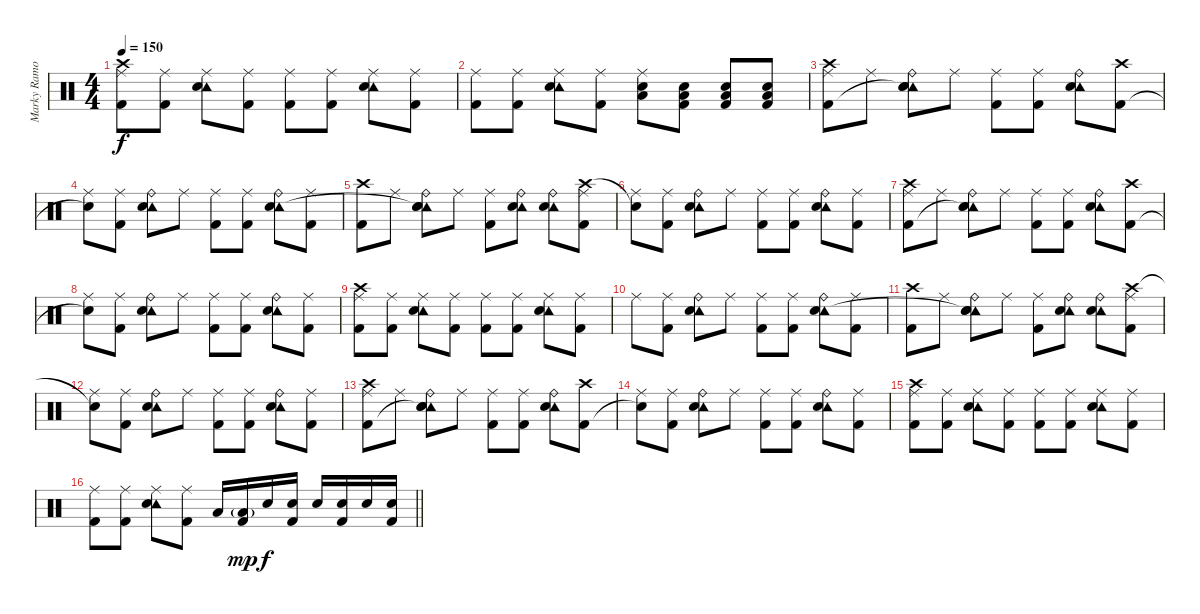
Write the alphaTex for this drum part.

\track ("Marky Ramone - Drum" "Marky Ramo") {instrument percussion}
\staff {score}
\articulation defaults
\ts (4 4)
\tempo 150
\clef neutral
\ks c
("Ride (middle)" "Crash high (hit)" "Kick (hit) 2").8{dy f} ("Ride (middle)" "Kick (hit) 2").8 ("Ride (middle)" "Tambourine (hit)" "Snare (hit) 2").8 ("Ride (middle)" "Kick (hit) 2").8 ("Ride (middle)" "Kick (hit) 2").8 ("Ride (middle)" "Kick (hit) 2").8 ("Ride (middle)" "Tambourine (hit)" "Snare (hit) 2").8 ("Ride (middle)" "Kick (hit) 2").8 |
("Ride (middle)" "Kick (hit) 2").8 ("Ride (middle)" "Kick (hit) 2").8 ("Ride (middle)" "Tambourine (hit)" "Snare (hit) 2").8 ("Ride (middle)" "Kick (hit) 2").8 ("Ride (middle)" "Low Floor Tom (hit)" "Snare (hit) 2").8 ("Low Floor Tom (hit)" "Snare (hit) 2" "Kick (hit) 2").8 ("Low Floor Tom (hit)" "Snare (hit) 2" "Kick (hit) 2").8 ("Low Floor Tom (hit)" "Snare (hit) 2" "Kick (hit) 2").8 |
("Ride (middle)" "Crash high (hit)" "Kick (hit) 2").8 "Ride (middle)".8 ("Ride (bell)" "Tambourine (hit)" "Snare (hit)"{t} "Snare (hit) 2").8 "Ride (middle)".8 ("Ride (middle)" "Kick (hit) 2").8 ("Ride (middle)" "Kick (hit) 2").8 ("Ride (bell)" "Tambourine (hit)" "Snare (hit) 2").8 ("Crash high (hit)" "Kick (hit) 2").8 |
("Ride (middle)" "Snare (hit)"{t}).8 ("Ride (middle)" "Kick (hit) 2").8 ("Ride (bell)" "Tambourine (hit)" "Snare (hit) 2").8 "Ride (middle)".8 ("Ride (middle)" "Kick (hit) 2").8 ("Ride (middle)" "Kick (hit) 2").8 ("Ride (bell)" "Tambourine (hit)" "Snare (hit) 2").8 ("Ride (middle)" "Kick (hit) 2").8 |
("Crash high (hit)" "Kick (hit) 2").8 "Ride (middle)".8 ("Ride (bell)" "Tambourine (hit)" "Snare (hit)"{t} "Snare (hit) 2").8 "Ride (middle)".8 ("Ride (middle)" "Kick (hit) 2").8 ("Ride (bell)" "Tambourine (hit)" "Snare (hit) 2").8 ("Ride (bell)" "Tambourine (hit)" "Snare (hit) 2").8 ("Ride (middle)" "Crash high (hit)" "Kick (hit) 2").8 |
("Ride (middle)" "Snare (hit)"{t}).8 ("Ride (middle)" "Kick (hit) 2").8 ("Ride (bell)" "Tambourine (hit)" "Snare (hit) 2").8 "Ride (middle)".8 ("Ride (middle)" "Kick (hit) 2").8 ("Ride (middle)" "Kick (hit) 2").8 ("Ride (bell)" "Tambourine (hit)" "Snare (hit) 2").8 ("Ride (middle)" "Kick (hit) 2").8 |
("Ride (middle)" "Crash high (hit)" "Kick (hit) 2").8 "Ride (middle)".8 ("Ride (bell)" "Tambourine (hit)" "Snare (hit)"{t} "Snare (hit) 2").8 "Ride (middle)".8 ("Ride (middle)" "Kick (hit) 2").8 ("Ride (middle)" "Kick (hit) 2").8 ("Ride (bell)" "Tambourine (hit)" "Snare (hit) 2").8 ("Crash high (hit)" "Kick (hit) 2").8 |
("Ride (middle)" "Snare (hit)"{t}).8 ("Ride (middle)" "Kick (hit) 2").8 ("Ride (bell)" "Tambourine (hit)" "Snare (hit) 2").8 "Ride (middle)".8 ("Ride (middle)" "Kick (hit) 2").8 ("Ride (middle)" "Kick (hit) 2").8 ("Ride (bell)" "Tambourine (hit)" "Snare (hit) 2").8 ("Ride (middle)" "Kick (hit) 2").8 |
("Ride (middle)" "Crash high (hit)" "Kick (hit) 2").8 ("Ride (middle)" "Kick (hit) 2").8 ("Ride (middle)" "Tambourine (hit)" "Snare (hit) 2").8 ("Ride (middle)" "Kick (hit) 2").8 ("Ride (middle)" "Kick (hit) 2").8 ("Ride (middle)" "Kick (hit) 2").8 ("Ride (middle)" "Tambourine (hit)" "Snare (hit) 2").8 ("Ride (middle)" "Kick (hit) 2").8 |
"Ride (middle)".8 ("Ride (middle)" "Kick (hit) 2").8 ("Ride (bell)" "Tambourine (hit)" "Snare (hit) 2").8 "Ride (middle)".8 ("Ride (middle)" "Kick (hit) 2").8 ("Ride (middle)" "Kick (hit) 2").8 ("Ride (bell)" "Tambourine (hit)" "Snare (hit) 2").8 ("Ride (middle)" "Kick (hit) 2").8 |
("Crash high (hit)" "Kick (hit) 2").8 "Ride (middle)".8 ("Ride (bell)" "Tambourine (hit)" "Snare (hit)"{t} "Snare (hit) 2").8 "Ride (middle)".8 ("Ride (middle)" "Kick (hit) 2").8 ("Ride (bell)" "Tambourine (hit)" "Snare (hit) 2").8 ("Ride (bell)" "Tambourine (hit)" "Snare (hit) 2").8 ("Ride (middle)" "Crash high (hit)" "Kick (hit) 2").8 |
("Ride (middle)" "Snare (hit)"{t}).8 ("Ride (middle)" "Kick (hit) 2").8 ("Ride (bell)" "Tambourine (hit)" "Snare (hit) 2").8 "Ride (middle)".8 ("Ride (middle)" "Kick (hit) 2").8 ("Ride (middle)" "Kick (hit) 2").8 ("Ride (bell)" "Tambourine (hit)" "Snare (hit) 2").8 ("Ride (middle)" "Kick (hit) 2").8 |
("Ride (middle)" "Crash high (hit)" "Kick (hit) 2").8 "Ride (middle)".8 ("Ride (bell)" "Tambourine (hit)" "Snare (hit)"{t} "Snare (hit) 2").8 "Ride (middle)".8 ("Ride (middle)" "Kick (hit) 2").8 ("Ride (middle)" "Kick (hit) 2").8 ("Ride (bell)" "Tambourine (hit)" "Snare (hit) 2").8 ("Crash high (hit)" "Kick (hit) 2").8 |
("Ride (middle)" "Snare (hit)"{t}).8 ("Ride (middle)" "Kick (hit) 2").8 ("Ride (bell)" "Tambourine (hit)" "Snare (hit) 2").8 "Ride (middle)".8 ("Ride (middle)" "Kick (hit) 2").8 ("Ride (middle)" "Kick (hit) 2").8 ("Ride (bell)" "Tambourine (hit)" "Snare (hit) 2").8 ("Ride (middle)" "Kick (hit) 2").8 |
("Ride (middle)" "Crash high (hit)" "Kick (hit) 2").8 ("Ride (middle)" "Kick (hit) 2").8 ("Ride (middle)" "Tambourine (hit)" "Snare (hit) 2").8 ("Ride (middle)" "Kick (hit) 2").8 ("Ride (middle)" "Kick (hit) 2").8 ("Ride (middle)" "Kick (hit) 2").8 ("Ride (middle)" "Tambourine (hit)" "Snare (hit) 2").8 ("Ride (middle)" "Kick (hit) 2").8 |
\barLineRight lightlight
("Ride (middle)" "Kick (hit) 2").8 ("Ride (middle)" "Kick (hit) 2").8 ("Ride (middle)" "Tambourine (hit)" "Snare (hit) 2").8 ("Ride (middle)" "Kick (hit) 2").8 "Low Tom (hit)".16 ("Low Tom (hit)"{g} "Kick (hit) 2").16{dy mp} "Snare (hit) 2".16{dy f} ("Snare (hit) 2" "Kick (hit) 2").16 "Snare (hit) 2".16 ("Snare (hit) 2" "Kick (hit) 2").16 "Snare (hit) 2".16 ("Snare (hit) 2" "Kick (hit) 2").16
